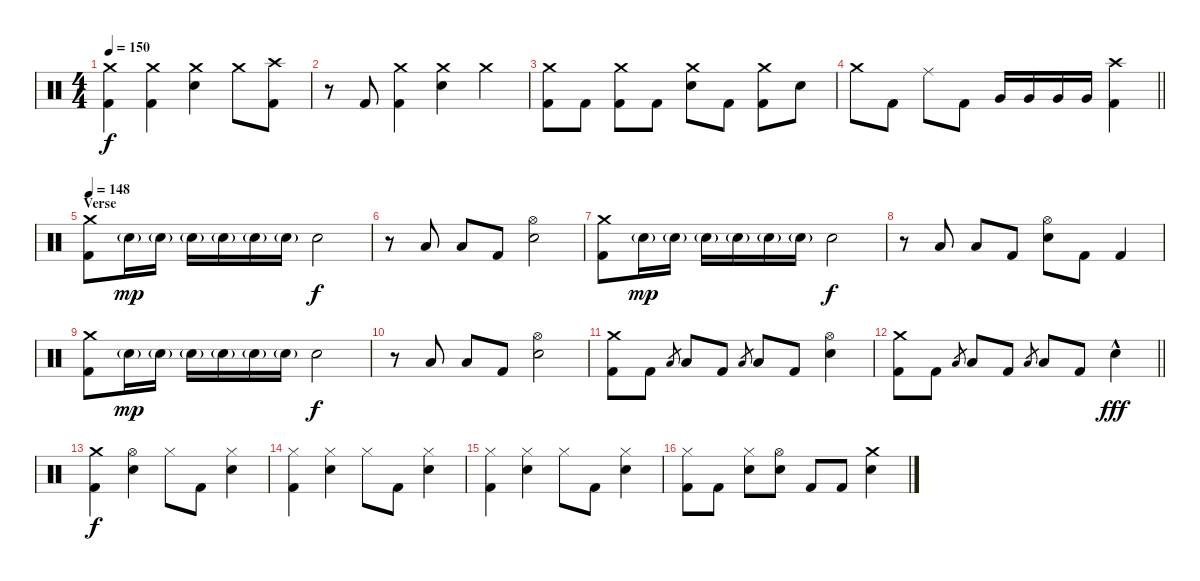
\track "" {instrument percussion}
\staff {score}
\articulation defaults
\ts (4 4)
\tempo 150
\clef neutral
\ks c
("Crash medium (hit)" "Kick (hit) 2").4{dy f} ("Crash medium (hit)" "Kick (hit) 2").4 ("Crash medium (hit)" "Electric Snare (hit)").4 "Crash medium (hit)".8 ("Crash high (hit)" "Kick (hit) 2").8 |
r.8 "Kick (hit) 2".8 ("Crash medium (hit)" "Kick (hit) 2").4 ("Crash medium (hit)" "Electric Snare (hit)").4 "Crash medium (hit)".4 |
("Crash medium (hit)" "Kick (hit) 2").8 "Kick (hit) 2".8 ("Crash medium (hit)" "Kick (hit) 2").8 "Kick (hit) 2".8 ("Crash medium (hit)" "Electric Snare (hit)").8 "Kick (hit) 2".8 ("Crash medium (hit)" "Kick (hit) 2").8 "Electric Snare (hit)".8 |
\barLineRight lightlight "Crash medium (hit)".8 "Kick (hit) 2".8 "Ride (middle)".8 "Kick (hit) 2".8 "Very Low Tom (hit)".16 "Very Low Tom (hit)".16 "Very Low Tom (hit)".16 "Very Low Tom (hit)".16
("Crash high (hit)" "Kick (hit) 2").4 |
\section ("" "Verse")
\tempo 148
("Crash medium (hit)" "Kick (hit) 2").8 "Electric Snare (hit)"{g}.16{dy mp} "Electric Snare (hit)"{g}.16 "Electric Snare (hit)"{g}.16 "Electric Snare (hit)"{g}.16 "Electric Snare (hit)"{g}.16 "Electric Snare (hit)"{g}.16 "Electric Snare (hit)".2{dy f} |
r.8 "Low Tom (hit)".8 "Low Floor Tom (hit)".8 "Kick (hit) 2".8 ("Hi-Hat (open)" "Electric Snare (hit)").2 |
("Crash medium (hit)" "Kick (hit) 2").8 "Electric Snare (hit)"{g}.16{dy mp} "Electric Snare (hit)"{g}.16 "Electric Snare (hit)"{g}.16 "Electric Snare (hit)"{g}.16 "Electric Snare (hit)"{g}.16 "Electric Snare (hit)"{g}.16 "Electric Snare (hit)".2{dy f} |
r.8 "Low Tom (hit)".8 "Low Floor Tom (hit)".8 "Kick (hit) 2".8 ("Hi-Hat (open)" "Electric Snare (hit)").8 "Kick (hit) 2".8 "Kick (hit) 2".4 |
("Crash medium (hit)" "Kick (hit) 2").8 "Electric Snare (hit)"{g}.16{dy mp} "Electric Snare (hit)"{g}.16 "Electric Snare (hit)"{g}.16 "Electric Snare (hit)"{g}.16 "Electric Snare (hit)"{g}.16 "Electric Snare (hit)"{g}.16 "Electric Snare (hit)".2{dy f} |
r.8 "Low Tom (hit)".8 "Low Floor Tom (hit)".8 "Kick (hit) 2".8 ("Hi-Hat (open)" "Electric Snare (hit)").2 |
("Crash medium (hit)" "Kick (hit) 2").8 "Kick (hit) 2".8 "Low Tom (hit)".8{gr} "Low Floor Tom (hit)".8 "Kick (hit) 2".8 "Low Tom (hit)".8{gr} "Low Floor Tom (hit)".8 "Kick (hit) 2".8 ("Hi-Hat (open)" "Electric Snare (hit)").4 |
\barLineRight lightlight
("Crash medium (hit)" "Kick (hit) 2").8 "Kick (hit) 2".8 "Low Tom (hit)".8{gr} "Low Floor Tom (hit)".8 "Kick (hit) 2".8 "Low Tom (hit)".8{gr} "Low Floor Tom (hit)".8 "Kick (hit) 2".8 "Electric Snare (hit)"{hac}.4{dy fff} |
("Crash medium (hit)" "Kick (hit) 2").4{dy f} ("Hi-Hat (open)" "Electric Snare (hit)").4 "Hi-Hat (closed)".8 "Kick (hit) 2".8 ("Hi-Hat (closed)" "Electric Snare (hit)").4 |
("Hi-Hat (closed)" "Kick (hit) 2").4 ("Hi-Hat (closed)" "Electric Snare (hit)").4 "Hi-Hat (closed)".8 "Kick (hit) 2".8 ("Hi-Hat (closed)" "Electric Snare (hit)").4 |
("Hi-Hat (closed)" "Kick (hit) 2").4 ("Hi-Hat (closed)" "Electric Snare (hit)").4 "Hi-Hat (closed)".8 "Kick (hit) 2".8 ("Hi-Hat (closed)" "Electric Snare (hit)").4 |
("Hi-Hat (closed)" "Kick (hit) 2").8 "Kick (hit) 2".8 ("Hi-Hat (closed)" "Electric Snare (hit)").8 ("Hi-Hat (open)" "Electric Snare (hit)").8 "Kick (hit) 2".8 "Kick (hit) 2".8 ("Crash medium (hit)" "Electric Snare (hit)").4
